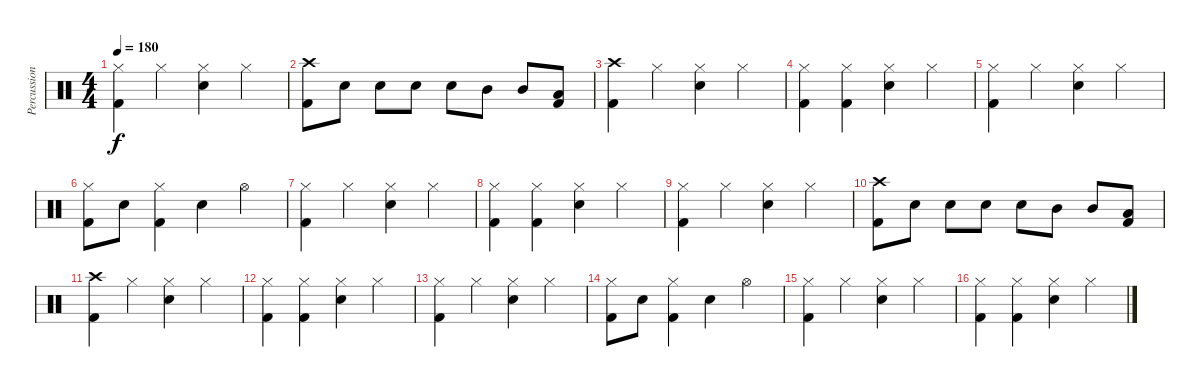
\track ("Percussion" "Percussion") {instrument percussion}
\staff {score}
\articulation defaults
\ts (4 4)
\tempo 180
\clef neutral
\ks c
("Hi-Hat (closed)" "Kick (hit) 2").4{dy f} "Hi-Hat (closed)".4 ("Hi-Hat (closed)" "Snare (hit) 2").4 "Hi-Hat (closed)".4 |
("Crash high (hit)" "Kick (hit) 2").8 "Snare (hit) 2".8 "Snare (hit) 2".8 "Snare (hit) 2".8 "Snare (hit) 2".8 "Mid Tom (hit)".8 "Mid Tom (hit)".8 ("Kick (hit) 2" "Low Tom (hit)").8 |
("Crash high (hit)" "Kick (hit) 2").4 "Hi-Hat (closed)".4 ("Hi-Hat (closed)" "Snare (hit) 2").4 "Hi-Hat (closed)".4 |
("Hi-Hat (closed)" "Kick (hit) 2").4 ("Hi-Hat (closed)" "Kick (hit) 2").4 ("Hi-Hat (closed)" "Snare (hit) 2").4 "Hi-Hat (closed)".4 |
("Hi-Hat (closed)" "Kick (hit) 2").4 "Hi-Hat (closed)".4 ("Hi-Hat (closed)" "Snare (hit) 2").4 "Hi-Hat (closed)".4 |
("Hi-Hat (closed)" "Kick (hit) 2").8 "Snare (hit) 2".8 ("Hi-Hat (closed)" "Kick (hit) 2").4 "Snare (hit) 2".4 "Hi-Hat (open)".4 |
("Hi-Hat (closed)" "Kick (hit) 2").4 "Hi-Hat (closed)".4 ("Hi-Hat (closed)" "Snare (hit) 2").4 "Hi-Hat (closed)".4 |
("Hi-Hat (closed)" "Kick (hit) 2").4 ("Hi-Hat (closed)" "Kick (hit) 2").4 ("Hi-Hat (closed)" "Snare (hit) 2").4 "Hi-Hat (closed)".4 |
("Hi-Hat (closed)" "Kick (hit) 2").4 "Hi-Hat (closed)".4 ("Hi-Hat (closed)" "Snare (hit) 2").4 "Hi-Hat (closed)".4 |
("Crash high (hit)" "Kick (hit) 2").8 "Snare (hit) 2".8 "Snare (hit) 2".8 "Snare (hit) 2".8 "Snare (hit) 2".8 "Mid Tom (hit)".8 "Mid Tom (hit)".8 ("Kick (hit) 2" "Low Tom (hit)").8 |
("Crash high (hit)" "Kick (hit) 2").4 "Hi-Hat (closed)".4 ("Hi-Hat (closed)" "Snare (hit) 2").4 "Hi-Hat (closed)".4 |
("Hi-Hat (closed)" "Kick (hit) 2").4 ("Hi-Hat (closed)" "Kick (hit) 2").4 ("Hi-Hat (closed)" "Snare (hit) 2").4 "Hi-Hat (closed)".4 |
("Hi-Hat (closed)" "Kick (hit) 2").4 "Hi-Hat (closed)".4 ("Hi-Hat (closed)" "Snare (hit) 2").4 "Hi-Hat (closed)".4 |
("Hi-Hat (closed)" "Kick (hit) 2").8 "Snare (hit) 2".8 ("Hi-Hat (closed)" "Kick (hit) 2").4 "Snare (hit) 2".4 "Hi-Hat (open)".4 |
("Hi-Hat (closed)" "Kick (hit) 2").4 "Hi-Hat (closed)".4 ("Hi-Hat (closed)" "Snare (hit) 2").4 "Hi-Hat (closed)".4 |
("Hi-Hat (closed)" "Kick (hit) 2").4 ("Hi-Hat (closed)" "Kick (hit) 2").4 ("Hi-Hat (closed)" "Snare (hit) 2").4 "Hi-Hat (closed)".4
